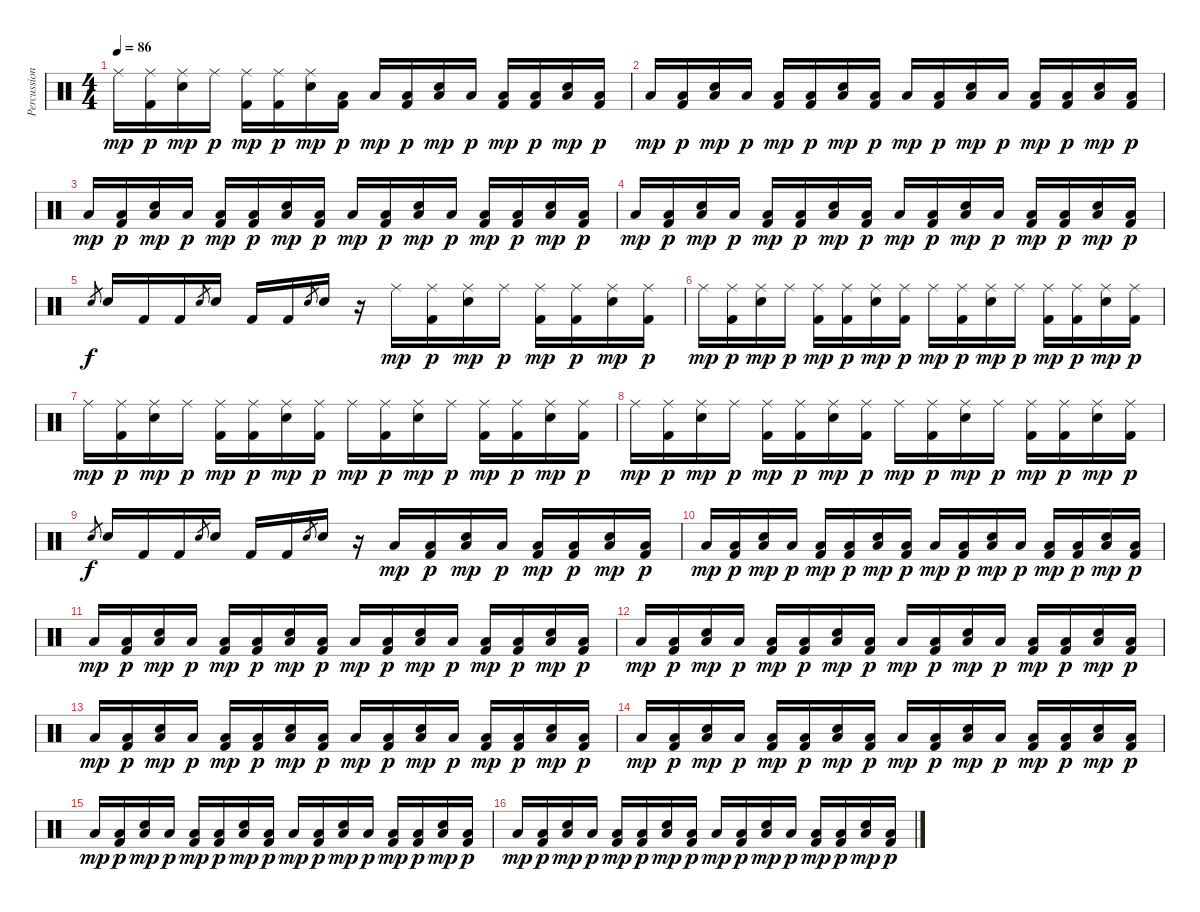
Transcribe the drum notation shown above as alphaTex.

\track ("Percussion" "Percussion") {instrument percussion}
\staff {score}
\articulation defaults
\ts (4 4)
\tempo 86
\clef neutral
\ks c "Ride (middle)".16{dy mp}
("Ride (middle)" "Kick (hit) 2").16{dy p} ("Ride (middle)" "Electric Snare (hit)").16{dy mp} "Ride (middle)".16{dy p} ("Ride (middle)" "Kick (hit) 2").16{dy mp} ("Ride (middle)" "Kick (hit) 2").16{dy p} ("Ride (middle)" "Electric Snare (hit)").16{dy mp} ("Low Floor Tom (hit)" "Kick (hit) 2").16{dy p} "Low Floor Tom (hit)".16{dy mp} ("Low Floor Tom (hit)" "Kick (hit) 2").16{dy p} ("Low Floor Tom (hit)" "Electric Snare (hit)").16{dy mp} "Low Floor Tom (hit)".16{dy p} ("Low Floor Tom (hit)" "Kick (hit) 2").16{dy mp} ("Low Floor Tom (hit)" "Kick (hit) 2").16{dy p} ("Low Floor Tom (hit)" "Electric Snare (hit)").16{dy mp} ("Low Floor Tom (hit)" "Kick (hit) 2").16{dy p} |
"Low Floor Tom (hit)".16{dy mp} ("Low Floor Tom (hit)" "Kick (hit) 2").16{dy p} ("Low Floor Tom (hit)" "Electric Snare (hit)").16{dy mp} "Low Floor Tom (hit)".16{dy p} ("Low Floor Tom (hit)" "Kick (hit) 2").16{dy mp} ("Low Floor Tom (hit)" "Kick (hit) 2").16{dy p} ("Low Floor Tom (hit)" "Electric Snare (hit)").16{dy mp} ("Low Floor Tom (hit)" "Kick (hit) 2").16{dy p} "Low Floor Tom (hit)".16{dy mp} ("Low Floor Tom (hit)" "Kick (hit) 2").16{dy p} ("Low Floor Tom (hit)" "Electric Snare (hit)").16{dy mp} "Low Floor Tom (hit)".16{dy p} ("Low Floor Tom (hit)" "Kick (hit) 2").16{dy mp} ("Low Floor Tom (hit)" "Kick (hit) 2").16{dy p} ("Low Floor Tom (hit)" "Electric Snare (hit)").16{dy mp} ("Low Floor Tom (hit)" "Kick (hit) 2").16{dy p} |
"Low Floor Tom (hit)".16{dy mp} ("Low Floor Tom (hit)" "Kick (hit) 2").16{dy p} ("Low Floor Tom (hit)" "Electric Snare (hit)").16{dy mp} "Low Floor Tom (hit)".16{dy p} ("Low Floor Tom (hit)" "Kick (hit) 2").16{dy mp} ("Low Floor Tom (hit)" "Kick (hit) 2").16{dy p} ("Low Floor Tom (hit)" "Electric Snare (hit)").16{dy mp} ("Low Floor Tom (hit)" "Kick (hit) 2").16{dy p} "Low Floor Tom (hit)".16{dy mp} ("Low Floor Tom (hit)" "Kick (hit) 2").16{dy p} ("Low Floor Tom (hit)" "Electric Snare (hit)").16{dy mp} "Low Floor Tom (hit)".16{dy p} ("Low Floor Tom (hit)" "Kick (hit) 2").16{dy mp} ("Low Floor Tom (hit)" "Kick (hit) 2").16{dy p} ("Low Floor Tom (hit)" "Electric Snare (hit)").16{dy mp} ("Low Floor Tom (hit)" "Kick (hit) 2").16{dy p} |
"Low Floor Tom (hit)".16{dy mp} ("Low Floor Tom (hit)" "Kick (hit) 2").16{dy p} ("Low Floor Tom (hit)" "Electric Snare (hit)").16{dy mp} "Low Floor Tom (hit)".16{dy p} ("Low Floor Tom (hit)" "Kick (hit) 2").16{dy mp} ("Low Floor Tom (hit)" "Kick (hit) 2").16{dy p} ("Low Floor Tom (hit)" "Electric Snare (hit)").16{dy mp} ("Low Floor Tom (hit)" "Kick (hit) 2").16{dy p} "Low Floor Tom (hit)".16{dy mp} ("Low Floor Tom (hit)" "Kick (hit) 2").16{dy p} ("Low Floor Tom (hit)" "Electric Snare (hit)").16{dy mp} "Low Floor Tom (hit)".16{dy p} ("Low Floor Tom (hit)" "Kick (hit) 2").16{dy mp} ("Low Floor Tom (hit)" "Kick (hit) 2").16{dy p} ("Low Floor Tom (hit)" "Electric Snare (hit)").16{dy mp} ("Low Floor Tom (hit)" "Kick (hit) 2").16{dy p} |
"Electric Snare (hit)".8{gr dy f} "Electric Snare (hit)".16 "Kick (hit) 2".16 "Kick (hit) 2".16 "Electric Snare (hit)".8{gr} "Electric Snare (hit)".16 "Kick (hit) 2".16 "Kick (hit) 2".16 "Electric Snare (hit)".8{gr} "Electric Snare (hit)".16 r.16 "Ride (middle)".16{dy mp} ("Ride (middle)" "Kick (hit) 2").16{dy p} ("Ride (middle)" "Electric Snare (hit)").16{dy mp} "Ride (middle)".16{dy p} ("Ride (middle)" "Kick (hit) 2").16{dy mp} ("Ride (middle)" "Kick (hit) 2").16{dy p} ("Ride (middle)" "Electric Snare (hit)").16{dy mp} ("Ride (middle)" "Kick (hit) 2").16{dy p} |
"Ride (middle)".16{dy mp} ("Ride (middle)" "Kick (hit) 2").16{dy p} ("Ride (middle)" "Electric Snare (hit)").16{dy mp} "Ride (middle)".16{dy p} ("Ride (middle)" "Kick (hit) 2").16{dy mp} ("Ride (middle)" "Kick (hit) 2").16{dy p} ("Ride (middle)" "Electric Snare (hit)").16{dy mp} ("Ride (middle)" "Kick (hit) 2").16{dy p} "Ride (middle)".16{dy mp} ("Ride (middle)" "Kick (hit) 2").16{dy p} ("Ride (middle)" "Electric Snare (hit)").16{dy mp} "Ride (middle)".16{dy p} ("Ride (middle)" "Kick (hit) 2").16{dy mp} ("Ride (middle)" "Kick (hit) 2").16{dy p} ("Ride (middle)" "Electric Snare (hit)").16{dy mp} ("Ride (middle)" "Kick (hit) 2").16{dy p} |
"Ride (middle)".16{dy mp} ("Ride (middle)" "Kick (hit) 2").16{dy p} ("Ride (middle)" "Electric Snare (hit)").16{dy mp} "Ride (middle)".16{dy p} ("Ride (middle)" "Kick (hit) 2").16{dy mp} ("Ride (middle)" "Kick (hit) 2").16{dy p} ("Ride (middle)" "Electric Snare (hit)").16{dy mp} ("Ride (middle)" "Kick (hit) 2").16{dy p} "Ride (middle)".16{dy mp} ("Ride (middle)" "Kick (hit) 2").16{dy p} ("Ride (middle)" "Electric Snare (hit)").16{dy mp} "Ride (middle)".16{dy p} ("Ride (middle)" "Kick (hit) 2").16{dy mp} ("Ride (middle)" "Kick (hit) 2").16{dy p} ("Ride (middle)" "Electric Snare (hit)").16{dy mp} ("Ride (middle)" "Kick (hit) 2").16{dy p} |
"Ride (middle)".16{dy mp} ("Ride (middle)" "Kick (hit) 2").16{dy p} ("Ride (middle)" "Electric Snare (hit)").16{dy mp} "Ride (middle)".16{dy p} ("Ride (middle)" "Kick (hit) 2").16{dy mp} ("Ride (middle)" "Kick (hit) 2").16{dy p} ("Ride (middle)" "Electric Snare (hit)").16{dy mp} ("Ride (middle)" "Kick (hit) 2").16{dy p} "Ride (middle)".16{dy mp} ("Ride (middle)" "Kick (hit) 2").16{dy p} ("Ride (middle)" "Electric Snare (hit)").16{dy mp} "Ride (middle)".16{dy p} ("Ride (middle)" "Kick (hit) 2").16{dy mp} ("Ride (middle)" "Kick (hit) 2").16{dy p} ("Ride (middle)" "Electric Snare (hit)").16{dy mp} ("Ride (middle)" "Kick (hit) 2").16{dy p} |
"Electric Snare (hit)".8{gr dy f} "Electric Snare (hit)".16 "Kick (hit) 2".16 "Kick (hit) 2".16 "Electric Snare (hit)".8{gr} "Electric Snare (hit)".16 "Kick (hit) 2".16 "Kick (hit) 2".16 "Electric Snare (hit)".8{gr} "Electric Snare (hit)".16 r.16 "Low Floor Tom (hit)".16{dy mp} ("Low Floor Tom (hit)" "Kick (hit) 2").16{dy p} ("Low Floor Tom (hit)" "Electric Snare (hit)").16{dy mp} "Low Floor Tom (hit)".16{dy p} ("Low Floor Tom (hit)" "Kick (hit) 2").16{dy mp} ("Low Floor Tom (hit)" "Kick (hit) 2").16{dy p} ("Low Floor Tom (hit)" "Electric Snare (hit)").16{dy mp} ("Low Floor Tom (hit)" "Kick (hit) 2").16{dy p} |
"Low Floor Tom (hit)".16{dy mp} ("Low Floor Tom (hit)" "Kick (hit) 2").16{dy p} ("Low Floor Tom (hit)" "Electric Snare (hit)").16{dy mp} "Low Floor Tom (hit)".16{dy p} ("Low Floor Tom (hit)" "Kick (hit) 2").16{dy mp} ("Low Floor Tom (hit)" "Kick (hit) 2").16{dy p} ("Low Floor Tom (hit)" "Electric Snare (hit)").16{dy mp} ("Low Floor Tom (hit)" "Kick (hit) 2").16{dy p} "Low Floor Tom (hit)".16{dy mp} ("Low Floor Tom (hit)" "Kick (hit) 2").16{dy p} ("Low Floor Tom (hit)" "Electric Snare (hit)").16{dy mp} "Low Floor Tom (hit)".16{dy p} ("Low Floor Tom (hit)" "Kick (hit) 2").16{dy mp} ("Low Floor Tom (hit)" "Kick (hit) 2").16{dy p} ("Low Floor Tom (hit)" "Electric Snare (hit)").16{dy mp} ("Low Floor Tom (hit)" "Kick (hit) 2").16{dy p} |
"Low Floor Tom (hit)".16{dy mp} ("Low Floor Tom (hit)" "Kick (hit) 2").16{dy p} ("Low Floor Tom (hit)" "Electric Snare (hit)").16{dy mp} "Low Floor Tom (hit)".16{dy p} ("Low Floor Tom (hit)" "Kick (hit) 2").16{dy mp} ("Low Floor Tom (hit)" "Kick (hit) 2").16{dy p} ("Low Floor Tom (hit)" "Electric Snare (hit)").16{dy mp} ("Low Floor Tom (hit)" "Kick (hit) 2").16{dy p} "Low Floor Tom (hit)".16{dy mp} ("Low Floor Tom (hit)" "Kick (hit) 2").16{dy p} ("Low Floor Tom (hit)" "Electric Snare (hit)").16{dy mp} "Low Floor Tom (hit)".16{dy p} ("Low Floor Tom (hit)" "Kick (hit) 2").16{dy mp} ("Low Floor Tom (hit)" "Kick (hit) 2").16{dy p} ("Low Floor Tom (hit)" "Electric Snare (hit)").16{dy mp} ("Low Floor Tom (hit)" "Kick (hit) 2").16{dy p} |
"Low Floor Tom (hit)".16{dy mp} ("Low Floor Tom (hit)" "Kick (hit) 2").16{dy p} ("Low Floor Tom (hit)" "Electric Snare (hit)").16{dy mp} "Low Floor Tom (hit)".16{dy p} ("Low Floor Tom (hit)" "Kick (hit) 2").16{dy mp} ("Low Floor Tom (hit)" "Kick (hit) 2").16{dy p} ("Low Floor Tom (hit)" "Electric Snare (hit)").16{dy mp} ("Low Floor Tom (hit)" "Kick (hit) 2").16{dy p} "Low Floor Tom (hit)".16{dy mp} ("Low Floor Tom (hit)" "Kick (hit) 2").16{dy p} ("Low Floor Tom (hit)" "Electric Snare (hit)").16{dy mp} "Low Floor Tom (hit)".16{dy p} ("Low Floor Tom (hit)" "Kick (hit) 2").16{dy mp} ("Low Floor Tom (hit)" "Kick (hit) 2").16{dy p} ("Low Floor Tom (hit)" "Electric Snare (hit)").16{dy mp} ("Low Floor Tom (hit)" "Kick (hit) 2").16{dy p} |
"Low Floor Tom (hit)".16{dy mp} ("Low Floor Tom (hit)" "Kick (hit) 2").16{dy p} ("Low Floor Tom (hit)" "Electric Snare (hit)").16{dy mp} "Low Floor Tom (hit)".16{dy p} ("Low Floor Tom (hit)" "Kick (hit) 2").16{dy mp} ("Low Floor Tom (hit)" "Kick (hit) 2").16{dy p} ("Low Floor Tom (hit)" "Electric Snare (hit)").16{dy mp} ("Low Floor Tom (hit)" "Kick (hit) 2").16{dy p} "Low Floor Tom (hit)".16{dy mp} ("Low Floor Tom (hit)" "Kick (hit) 2").16{dy p} ("Low Floor Tom (hit)" "Electric Snare (hit)").16{dy mp} "Low Floor Tom (hit)".16{dy p} ("Low Floor Tom (hit)" "Kick (hit) 2").16{dy mp} ("Low Floor Tom (hit)" "Kick (hit) 2").16{dy p} ("Low Floor Tom (hit)" "Electric Snare (hit)").16{dy mp} ("Low Floor Tom (hit)" "Kick (hit) 2").16{dy p} |
"Low Floor Tom (hit)".16{dy mp} ("Low Floor Tom (hit)" "Kick (hit) 2").16{dy p} ("Low Floor Tom (hit)" "Electric Snare (hit)").16{dy mp} "Low Floor Tom (hit)".16{dy p} ("Low Floor Tom (hit)" "Kick (hit) 2").16{dy mp} ("Low Floor Tom (hit)" "Kick (hit) 2").16{dy p} ("Low Floor Tom (hit)" "Electric Snare (hit)").16{dy mp} ("Low Floor Tom (hit)" "Kick (hit) 2").16{dy p} "Low Floor Tom (hit)".16{dy mp} ("Low Floor Tom (hit)" "Kick (hit) 2").16{dy p} ("Low Floor Tom (hit)" "Electric Snare (hit)").16{dy mp} "Low Floor Tom (hit)".16{dy p} ("Low Floor Tom (hit)" "Kick (hit) 2").16{dy mp} ("Low Floor Tom (hit)" "Kick (hit) 2").16{dy p} ("Low Floor Tom (hit)" "Electric Snare (hit)").16{dy mp} ("Low Floor Tom (hit)" "Kick (hit) 2").16{dy p} |
"Low Floor Tom (hit)".16{dy mp} ("Low Floor Tom (hit)" "Kick (hit) 2").16{dy p} ("Low Floor Tom (hit)" "Electric Snare (hit)").16{dy mp} "Low Floor Tom (hit)".16{dy p} ("Low Floor Tom (hit)" "Kick (hit) 2").16{dy mp} ("Low Floor Tom (hit)" "Kick (hit) 2").16{dy p} ("Low Floor Tom (hit)" "Electric Snare (hit)").16{dy mp} ("Low Floor Tom (hit)" "Kick (hit) 2").16{dy p} "Low Floor Tom (hit)".16{dy mp} ("Low Floor Tom (hit)" "Kick (hit) 2").16{dy p} ("Low Floor Tom (hit)" "Electric Snare (hit)").16{dy mp} "Low Floor Tom (hit)".16{dy p} ("Low Floor Tom (hit)" "Kick (hit) 2").16{dy mp} ("Low Floor Tom (hit)" "Kick (hit) 2").16{dy p} ("Low Floor Tom (hit)" "Electric Snare (hit)").16{dy mp} ("Low Floor Tom (hit)" "Kick (hit) 2").16{dy p} |
"Low Floor Tom (hit)".16{dy mp} ("Low Floor Tom (hit)" "Kick (hit) 2").16{dy p} ("Low Floor Tom (hit)" "Electric Snare (hit)").16{dy mp} "Low Floor Tom (hit)".16{dy p} ("Low Floor Tom (hit)" "Kick (hit) 2").16{dy mp} ("Low Floor Tom (hit)" "Kick (hit) 2").16{dy p} ("Low Floor Tom (hit)" "Electric Snare (hit)").16{dy mp} ("Low Floor Tom (hit)" "Kick (hit) 2").16{dy p} "Low Floor Tom (hit)".16{dy mp} ("Low Floor Tom (hit)" "Kick (hit) 2").16{dy p} ("Low Floor Tom (hit)" "Electric Snare (hit)").16{dy mp} "Low Floor Tom (hit)".16{dy p} ("Low Floor Tom (hit)" "Kick (hit) 2").16{dy mp} ("Low Floor Tom (hit)" "Kick (hit) 2").16{dy p} ("Low Floor Tom (hit)" "Electric Snare (hit)").16{dy mp} ("Low Floor Tom (hit)" "Kick (hit) 2").16{dy p}
